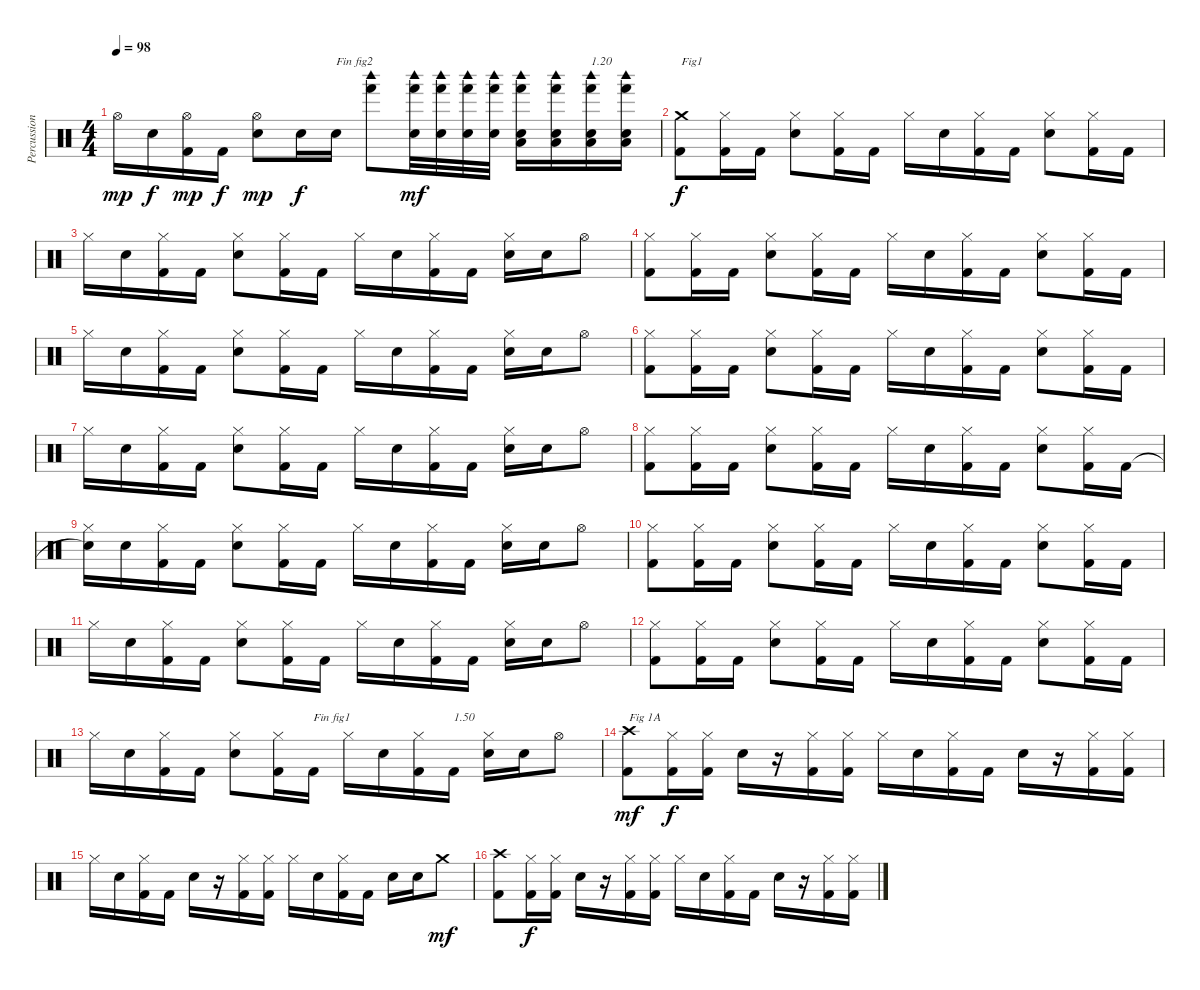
\track ("Percussions" "Percussion") {instrument percussion}
\staff {score}
\articulation defaults
\ts (4 4)
\tempo 98
\clef neutral
\ks c "Hi-Hat (open)".16{dy mp} "Electric Snare (hit)".16{dy f}
("Kick (hit) 2" "Hi-Hat (open)").16{dy mp} "Kick (hit) 2".16{dy f} ("Electric Snare (hit)" "Hi-Hat (open)").8{dy mp} "Electric Snare (hit)".16{dy f} "Electric Snare (hit)".16{txt "Fin fig2"} ("Hand (hit)" "Woodblock high (hit)").8 ("Electric Snare (hit)" "Hand (hit)" "Woodblock high (hit)").32{dy mf} ("Electric Snare (hit)" "Hand (hit)" "Woodblock high (hit)").32 ("Electric Snare (hit)" "Hand (hit)" "Woodblock high (hit)").32 ("Electric Snare (hit)" "Hand (hit)" "Woodblock high (hit)").32 ("Electric Snare (hit)" "Hand (hit)" "Woodblock high (hit)" "Low Tom (hit)").16 ("Electric Snare (hit)" "Hand (hit)" "Woodblock high (hit)" "Low Tom (hit)").16 ("Electric Snare (hit)" "Hand (hit)" "Woodblock high (hit)" "Low Floor Tom (hit)").16{txt "1.20"} ("Electric Snare (hit)" "Hand (hit)" "Woodblock high (hit)" "Low Floor Tom (hit)").16 |
("Kick (hit) 2" "Crash medium (hit)").8{txt "Fig1" dy f} ("Kick (hit) 2" "Hi-Hat (closed)").16 "Kick (hit) 2".16 ("Electric Snare (hit)" "Hi-Hat (closed)").8 ("Kick (hit) 2" "Hi-Hat (closed)").16 "Kick (hit) 2".16 "Hi-Hat (closed)".16 "Electric Snare (hit)".16 ("Kick (hit) 2" "Hi-Hat (closed)").16 "Kick (hit) 2".16 ("Electric Snare (hit)" "Hi-Hat (closed)").8 ("Kick (hit) 2" "Hi-Hat (closed)").16 "Kick (hit) 2".16 |
"Hi-Hat (closed)".16 "Electric Snare (hit)".16 ("Kick (hit) 2" "Hi-Hat (closed)").16 "Kick (hit) 2".16 ("Electric Snare (hit)" "Hi-Hat (closed)").8 ("Kick (hit) 2" "Hi-Hat (closed)").16 "Kick (hit) 2".16 "Hi-Hat (closed)".16 "Electric Snare (hit)".16 ("Kick (hit) 2" "Hi-Hat (closed)").16 "Kick (hit) 2".16 ("Electric Snare (hit)" "Hi-Hat (closed)").16 "Electric Snare (hit)".16 "Hi-Hat (open)".8 |
("Kick (hit) 2" "Hi-Hat (closed)").8 ("Kick (hit) 2" "Hi-Hat (closed)").16 "Kick (hit) 2".16 ("Electric Snare (hit)" "Hi-Hat (closed)").8 ("Kick (hit) 2" "Hi-Hat (closed)").16 "Kick (hit) 2".16 "Hi-Hat (closed)".16 "Electric Snare (hit)".16 ("Kick (hit) 2" "Hi-Hat (closed)").16 "Kick (hit) 2".16 ("Electric Snare (hit)" "Hi-Hat (closed)").8 ("Kick (hit) 2" "Hi-Hat (closed)").16 "Kick (hit) 2".16 |
"Hi-Hat (closed)".16 "Electric Snare (hit)".16 ("Kick (hit) 2" "Hi-Hat (closed)").16 "Kick (hit) 2".16 ("Electric Snare (hit)" "Hi-Hat (closed)").8 ("Kick (hit) 2" "Hi-Hat (closed)").16 "Kick (hit) 2".16 "Hi-Hat (closed)".16 "Electric Snare (hit)".16 ("Kick (hit) 2" "Hi-Hat (closed)").16 "Kick (hit) 2".16 ("Electric Snare (hit)" "Hi-Hat (closed)").16 "Electric Snare (hit)".16 "Hi-Hat (open)".8 |
("Kick (hit) 2" "Hi-Hat (closed)").8 ("Kick (hit) 2" "Hi-Hat (closed)").16 "Kick (hit) 2".16 ("Electric Snare (hit)" "Hi-Hat (closed)").8 ("Kick (hit) 2" "Hi-Hat (closed)").16 "Kick (hit) 2".16 "Hi-Hat (closed)".16 "Electric Snare (hit)".16 ("Kick (hit) 2" "Hi-Hat (closed)").16 "Kick (hit) 2".16 ("Electric Snare (hit)" "Hi-Hat (closed)").8 ("Kick (hit) 2" "Hi-Hat (closed)").16 "Kick (hit) 2".16 |
"Hi-Hat (closed)".16 "Electric Snare (hit)".16 ("Kick (hit) 2" "Hi-Hat (closed)").16 "Kick (hit) 2".16 ("Electric Snare (hit)" "Hi-Hat (closed)").8 ("Kick (hit) 2" "Hi-Hat (closed)").16 "Kick (hit) 2".16 "Hi-Hat (closed)".16 "Electric Snare (hit)".16 ("Kick (hit) 2" "Hi-Hat (closed)").16 "Kick (hit) 2".16 ("Electric Snare (hit)" "Hi-Hat (closed)").16 "Electric Snare (hit)".16 "Hi-Hat (open)".8 |
("Kick (hit) 2" "Hi-Hat (closed)").8 ("Kick (hit) 2" "Hi-Hat (closed)").16 "Kick (hit) 2".16 ("Electric Snare (hit)" "Hi-Hat (closed)").8 ("Kick (hit) 2" "Hi-Hat (closed)").16 "Kick (hit) 2".16 "Hi-Hat (closed)".16 "Electric Snare (hit)".16 ("Kick (hit) 2" "Hi-Hat (closed)").16 "Kick (hit) 2".16 ("Electric Snare (hit)" "Hi-Hat (closed)").8 ("Kick (hit) 2" "Hi-Hat (closed)").16 "Kick (hit) 2".16 |
("Snare (hit)"{t} "Hi-Hat (closed)").16 "Electric Snare (hit)".16 ("Kick (hit) 2" "Hi-Hat (closed)").16 "Kick (hit) 2".16 ("Electric Snare (hit)" "Hi-Hat (closed)").8 ("Kick (hit) 2" "Hi-Hat (closed)").16 "Kick (hit) 2".16 "Hi-Hat (closed)".16 "Electric Snare (hit)".16 ("Kick (hit) 2" "Hi-Hat (closed)").16 "Kick (hit) 2".16 ("Electric Snare (hit)" "Hi-Hat (closed)").16 "Electric Snare (hit)".16 "Hi-Hat (open)".8 |
("Kick (hit) 2" "Hi-Hat (closed)").8 ("Kick (hit) 2" "Hi-Hat (closed)").16 "Kick (hit) 2".16 ("Electric Snare (hit)" "Hi-Hat (closed)").8 ("Kick (hit) 2" "Hi-Hat (closed)").16 "Kick (hit) 2".16 "Hi-Hat (closed)".16 "Electric Snare (hit)".16 ("Kick (hit) 2" "Hi-Hat (closed)").16 "Kick (hit) 2".16 ("Electric Snare (hit)" "Hi-Hat (closed)").8 ("Kick (hit) 2" "Hi-Hat (closed)").16 "Kick (hit) 2".16 |
"Hi-Hat (closed)".16 "Electric Snare (hit)".16 ("Kick (hit) 2" "Hi-Hat (closed)").16 "Kick (hit) 2".16 ("Electric Snare (hit)" "Hi-Hat (closed)").8 ("Kick (hit) 2" "Hi-Hat (closed)").16 "Kick (hit) 2".16 "Hi-Hat (closed)".16 "Electric Snare (hit)".16 ("Kick (hit) 2" "Hi-Hat (closed)").16 "Kick (hit) 2".16 ("Electric Snare (hit)" "Hi-Hat (closed)").16 "Electric Snare (hit)".16 "Hi-Hat (open)".8 |
("Kick (hit) 2" "Hi-Hat (closed)").8 ("Kick (hit) 2" "Hi-Hat (closed)").16 "Kick (hit) 2".16 ("Electric Snare (hit)" "Hi-Hat (closed)").8 ("Kick (hit) 2" "Hi-Hat (closed)").16 "Kick (hit) 2".16 "Hi-Hat (closed)".16 "Electric Snare (hit)".16 ("Kick (hit) 2" "Hi-Hat (closed)").16 "Kick (hit) 2".16 ("Electric Snare (hit)" "Hi-Hat (closed)").8 ("Kick (hit) 2" "Hi-Hat (closed)").16 "Kick (hit) 2".16 |
"Hi-Hat (closed)".16 "Electric Snare (hit)".16 ("Kick (hit) 2" "Hi-Hat (closed)").16 "Kick (hit) 2".16 ("Electric Snare (hit)" "Hi-Hat (closed)").8 ("Kick (hit) 2" "Hi-Hat (closed)").16 "Kick (hit) 2".16{txt "Fin fig1"} "Hi-Hat (closed)".16 "Electric Snare (hit)".16 ("Kick (hit) 2" "Hi-Hat (closed)").16 "Kick (hit) 2".16{txt "1.50"} ("Electric Snare (hit)" "Hi-Hat (closed)").16 "Electric Snare (hit)".16 "Hi-Hat (open)".8 |
("Kick (hit) 2" "Crash high (hit)").8{txt "Fig 1A" dy mf} ("Kick (hit) 2" "Hi-Hat (closed)").16{dy f} ("Kick (hit) 2" "Hi-Hat (closed)").16 "Electric Snare (hit)".16 r.16 ("Kick (hit) 2" "Hi-Hat (closed)").16 ("Kick (hit) 2" "Hi-Hat (closed)").16 "Hi-Hat (closed)".16 "Electric Snare (hit)".16 ("Kick (hit) 2" "Hi-Hat (closed)").16 "Kick (hit) 2".16 "Electric Snare (hit)".16 r.16 ("Kick (hit) 2" "Hi-Hat (closed)").16 ("Kick (hit) 2" "Hi-Hat (closed)").16 |
"Hi-Hat (closed)".16 "Electric Snare (hit)".16 ("Kick (hit) 2" "Hi-Hat (closed)").16 "Kick (hit) 2".16 "Electric Snare (hit)".16 r.16 ("Kick (hit) 2" "Hi-Hat (closed)").16 ("Kick (hit) 2" "Hi-Hat (closed)").16 "Hi-Hat (closed)".16 "Electric Snare (hit)".16 ("Kick (hit) 2" "Hi-Hat (closed)").16 "Kick (hit) 2".16 "Electric Snare (hit)".16 "Electric Snare (hit)".16 "Crash medium (hit)".8{dy mf} |
("Kick (hit) 2" "Crash high (hit)").8 ("Kick (hit) 2" "Hi-Hat (closed)").16{dy f} ("Kick (hit) 2" "Hi-Hat (closed)").16 "Electric Snare (hit)".16 r.16 ("Kick (hit) 2" "Hi-Hat (closed)").16 ("Kick (hit) 2" "Hi-Hat (closed)").16 "Hi-Hat (closed)".16 "Electric Snare (hit)".16 ("Kick (hit) 2" "Hi-Hat (closed)").16 "Kick (hit) 2".16 "Electric Snare (hit)".16 r.16 ("Kick (hit) 2" "Hi-Hat (closed)").16 ("Kick (hit) 2" "Hi-Hat (closed)").16
